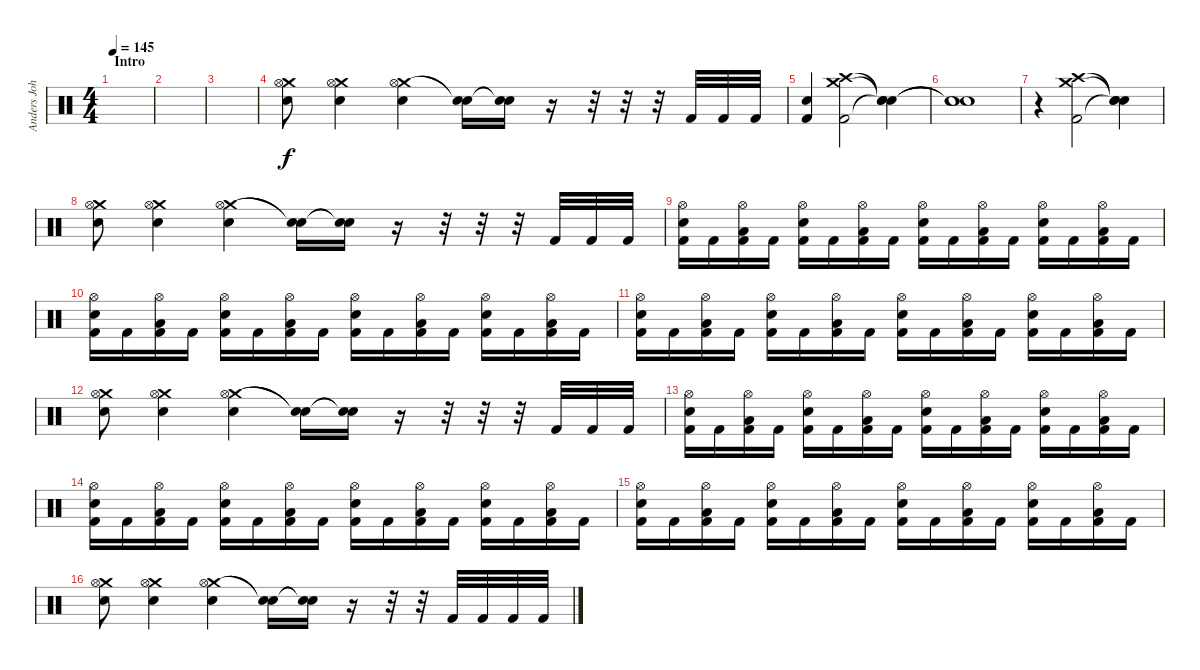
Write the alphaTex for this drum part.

\track ("Anders Johansson (Drums)" "Anders Joh") {instrument percussion}
\staff {score}
\articulation defaults
\ts (4 4)
\section ("" "Intro")
\tempo 145
\clef neutral
\ks c
|
|
|
("Crash medium (hit)" "Hi-Hat (open)" "Snare (hit) 2").8 ("Crash medium (hit)" "Hi-Hat (open)" "Snare (hit) 2").4 ("Crash medium (hit)" "Hi-Hat (open)" "Snare (hit) 2").4 ("Snare (hit)"{t} "Snare (hit)"{t}).16 ("Snare (hit)"{t} "Snare (hit)"{t}).16 r.16 r.32 r.32 r.32 "Kick (hit) 2".32 "Kick (hit) 2".32 "Kick (hit) 2".32 |
("Kick (hit) 2" "Snare (hit) 2").4 ("Crash medium (hit)" "Crash high (hit)" "Kick (hit) 2").2 ("Snare (hit)"{t} "Snare (hit)"{t} "Snare (hit)"{t}).4 |
("Snare (hit)"{t} "Snare (hit)"{t} "Snare (hit)"{t}).1 |
r.4 ("Crash medium (hit)" "Crash high (hit)" "Kick (hit) 2").2 ("Snare (hit)"{t} "Snare (hit)"{t} "Snare (hit)"{t}).4 |
("Crash medium (hit)" "Hi-Hat (open)" "Snare (hit) 2").8 ("Crash medium (hit)" "Hi-Hat (open)" "Snare (hit) 2").4 ("Crash medium (hit)" "Hi-Hat (open)" "Snare (hit) 2").4 ("Snare (hit)"{t} "Snare (hit)"{t}).16 ("Snare (hit)"{t} "Snare (hit)"{t}).16 r.16 r.32 r.32 r.32 "Kick (hit) 2".32 "Kick (hit) 2".32 "Kick (hit) 2".32 |
("Kick (hit) 2" "Electric Snare (hit)" "Hi-Hat (open)").16 "Kick (hit) 2".16 ("Kick (hit) 2" "Low Tom (hit)" "Hi-Hat (open)").16 "Kick (hit) 2".16 ("Kick (hit) 2" "Electric Snare (hit)" "Hi-Hat (open)").16 "Kick (hit) 2".16 ("Kick (hit) 2" "Low Tom (hit)" "Hi-Hat (open)").16 "Kick (hit) 2".16 ("Kick (hit) 2" "Electric Snare (hit)" "Hi-Hat (open)").16 "Kick (hit) 2".16 ("Kick (hit) 2" "Low Tom (hit)" "Hi-Hat (open)").16 "Kick (hit) 2".16 ("Kick (hit) 2" "Electric Snare (hit)" "Hi-Hat (open)").16 "Kick (hit) 2".16 ("Kick (hit) 2" "Low Tom (hit)" "Hi-Hat (open)").16 "Kick (hit) 2".16 |
("Kick (hit) 2" "Electric Snare (hit)" "Hi-Hat (open)").16 "Kick (hit) 2".16 ("Kick (hit) 2" "Low Tom (hit)" "Hi-Hat (open)").16 "Kick (hit) 2".16 ("Kick (hit) 2" "Electric Snare (hit)" "Hi-Hat (open)").16 "Kick (hit) 2".16 ("Kick (hit) 2" "Low Tom (hit)" "Hi-Hat (open)").16 "Kick (hit) 2".16 ("Kick (hit) 2" "Electric Snare (hit)" "Hi-Hat (open)").16 "Kick (hit) 2".16 ("Kick (hit) 2" "Low Tom (hit)" "Hi-Hat (open)").16 "Kick (hit) 2".16 ("Kick (hit) 2" "Electric Snare (hit)" "Hi-Hat (open)").16 "Kick (hit) 2".16 ("Kick (hit) 2" "Low Tom (hit)" "Hi-Hat (open)").16 "Kick (hit) 2".16 |
("Kick (hit) 2" "Electric Snare (hit)" "Hi-Hat (open)").16 "Kick (hit) 2".16 ("Kick (hit) 2" "Low Tom (hit)" "Hi-Hat (open)").16 "Kick (hit) 2".16 ("Kick (hit) 2" "Electric Snare (hit)" "Hi-Hat (open)").16 "Kick (hit) 2".16 ("Kick (hit) 2" "Low Tom (hit)" "Hi-Hat (open)").16 "Kick (hit) 2".16 ("Kick (hit) 2" "Electric Snare (hit)" "Hi-Hat (open)").16 "Kick (hit) 2".16 ("Kick (hit) 2" "Low Tom (hit)" "Hi-Hat (open)").16 "Kick (hit) 2".16 ("Kick (hit) 2" "Electric Snare (hit)" "Hi-Hat (open)").16 "Kick (hit) 2".16 ("Kick (hit) 2" "Low Tom (hit)" "Hi-Hat (open)").16 "Kick (hit) 2".16 |
("Crash medium (hit)" "Hi-Hat (open)" "Snare (hit) 2").8 ("Crash medium (hit)" "Hi-Hat (open)" "Snare (hit) 2").4 ("Crash medium (hit)" "Hi-Hat (open)" "Snare (hit) 2").4 ("Snare (hit)"{t} "Snare (hit)"{t}).16 ("Snare (hit)"{t} "Snare (hit)"{t}).16 r.16 r.32 r.32 r.32 "Kick (hit) 2".32 "Kick (hit) 2".32 "Kick (hit) 2".32 |
("Kick (hit) 2" "Electric Snare (hit)" "Hi-Hat (open)").16 "Kick (hit) 2".16 ("Kick (hit) 2" "Low Tom (hit)" "Hi-Hat (open)").16 "Kick (hit) 2".16 ("Kick (hit) 2" "Electric Snare (hit)" "Hi-Hat (open)").16 "Kick (hit) 2".16 ("Kick (hit) 2" "Low Tom (hit)" "Hi-Hat (open)").16 "Kick (hit) 2".16 ("Kick (hit) 2" "Electric Snare (hit)" "Hi-Hat (open)").16 "Kick (hit) 2".16 ("Kick (hit) 2" "Low Tom (hit)" "Hi-Hat (open)").16 "Kick (hit) 2".16 ("Kick (hit) 2" "Electric Snare (hit)" "Hi-Hat (open)").16 "Kick (hit) 2".16 ("Kick (hit) 2" "Low Tom (hit)" "Hi-Hat (open)").16 "Kick (hit) 2".16 |
("Kick (hit) 2" "Electric Snare (hit)" "Hi-Hat (open)").16 "Kick (hit) 2".16 ("Kick (hit) 2" "Low Tom (hit)" "Hi-Hat (open)").16 "Kick (hit) 2".16 ("Kick (hit) 2" "Electric Snare (hit)" "Hi-Hat (open)").16 "Kick (hit) 2".16 ("Kick (hit) 2" "Low Tom (hit)" "Hi-Hat (open)").16 "Kick (hit) 2".16 ("Kick (hit) 2" "Electric Snare (hit)" "Hi-Hat (open)").16 "Kick (hit) 2".16 ("Kick (hit) 2" "Low Tom (hit)" "Hi-Hat (open)").16 "Kick (hit) 2".16 ("Kick (hit) 2" "Electric Snare (hit)" "Hi-Hat (open)").16 "Kick (hit) 2".16 ("Kick (hit) 2" "Low Tom (hit)" "Hi-Hat (open)").16 "Kick (hit) 2".16 |
("Kick (hit) 2" "Electric Snare (hit)" "Hi-Hat (open)").16 "Kick (hit) 2".16 ("Kick (hit) 2" "Low Tom (hit)" "Hi-Hat (open)").16 "Kick (hit) 2".16 ("Kick (hit) 2" "Electric Snare (hit)" "Hi-Hat (open)").16 "Kick (hit) 2".16 ("Kick (hit) 2" "Low Tom (hit)" "Hi-Hat (open)").16 "Kick (hit) 2".16 ("Kick (hit) 2" "Electric Snare (hit)" "Hi-Hat (open)").16 "Kick (hit) 2".16 ("Kick (hit) 2" "Low Tom (hit)" "Hi-Hat (open)").16 "Kick (hit) 2".16 ("Kick (hit) 2" "Electric Snare (hit)" "Hi-Hat (open)").16 "Kick (hit) 2".16 ("Kick (hit) 2" "Low Tom (hit)" "Hi-Hat (open)").16 "Kick (hit) 2".16 |
("Crash medium (hit)" "Hi-Hat (open)" "Snare (hit) 2").8 ("Crash medium (hit)" "Hi-Hat (open)" "Snare (hit) 2").4 ("Crash medium (hit)" "Hi-Hat (open)" "Snare (hit) 2").4 ("Snare (hit)"{t} "Snare (hit)"{t}).16 ("Snare (hit)"{t} "Snare (hit)"{t}).16 r.16 r.32 r.32 "Kick (hit) 2".32 "Kick (hit) 2".32 "Kick (hit) 2".32 "Kick (hit) 2".32
